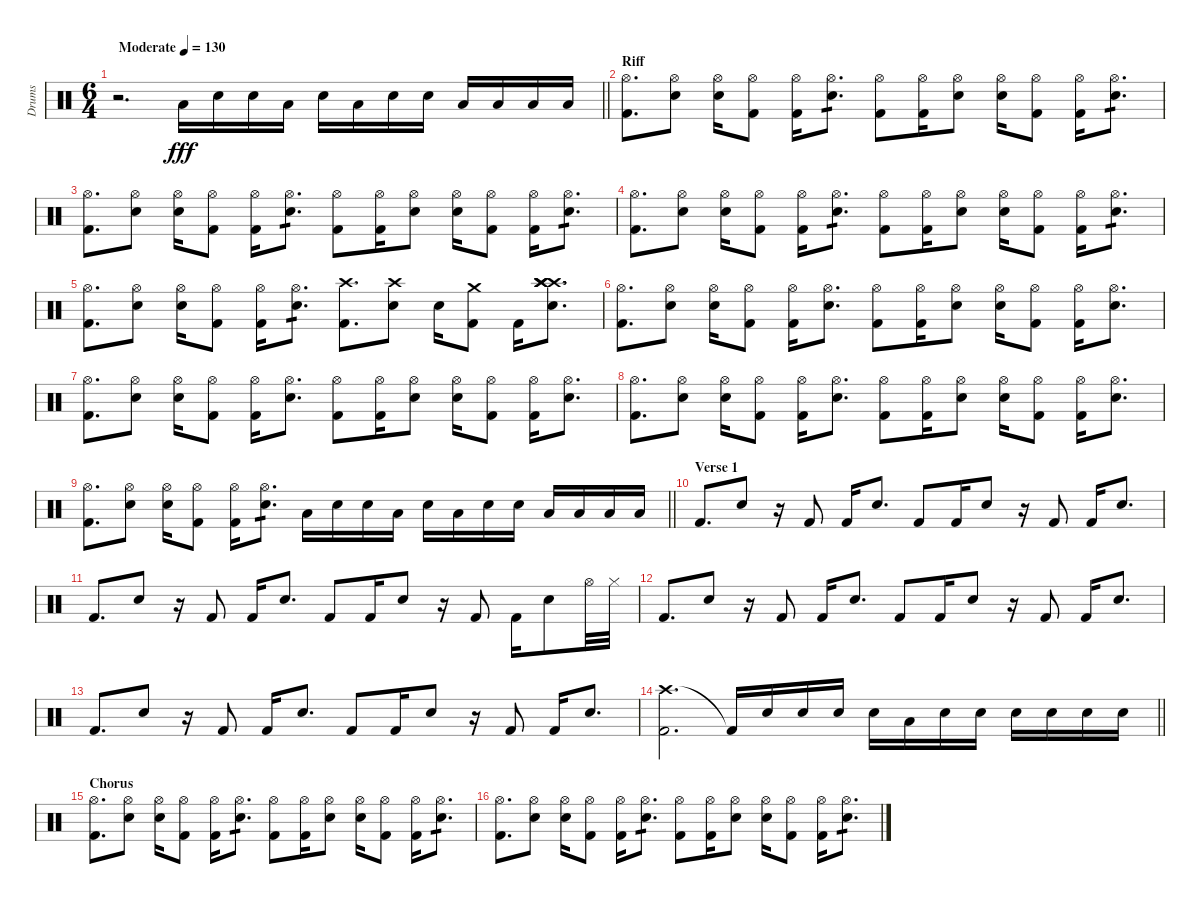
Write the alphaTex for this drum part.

\track ("Drums" "Drums") {instrument percussion}
\staff {score}
\articulation defaults
\ts (6 4)
\tempo (130 "Moderate")
\clef neutral
\barLineRight lightlight
\ks c
r.2{d dy fff} "Low Tom (hit)".16 "Electric Snare (hit)".16 "Electric Snare (hit)".16 "Low Tom (hit)".16 "Electric Snare (hit)".16 "Low Tom (hit)".16 "Electric Snare (hit)".16 "Electric Snare (hit)".16 "Low Tom (hit)".16 "Low Tom (hit)".16 "Low Tom (hit)".16 "Low Floor Tom (hit)".16 |
\section ("" "Riff")
("Hi-Hat (open)" "Kick (hit) 2").8{d} ("Hi-Hat (open)" "Snare (hit) 2").8 ("Hi-Hat (open)" "Snare (hit) 2").16 ("Hi-Hat (open)" "Kick (hit) 2").8 ("Hi-Hat (open)" "Kick (hit) 2").16 ("Hi-Hat (open)" "Snare (hit) 2").8{d tp 1} ("Hi-Hat (open)" "Kick (hit) 2").8 ("Hi-Hat (open)" "Kick (hit) 2").16 ("Hi-Hat (open)" "Snare (hit) 2").8 ("Hi-Hat (open)" "Snare (hit) 2").16 ("Hi-Hat (open)" "Kick (hit) 2").8 ("Hi-Hat (open)" "Kick (hit) 2").16 ("Hi-Hat (open)" "Snare (hit) 2").8{d tp 1} |
("Hi-Hat (open)" "Kick (hit) 2").8{d} ("Hi-Hat (open)" "Snare (hit) 2").8 ("Hi-Hat (open)" "Snare (hit) 2").16 ("Hi-Hat (open)" "Kick (hit) 2").8 ("Hi-Hat (open)" "Kick (hit) 2").16 ("Hi-Hat (open)" "Snare (hit) 2").8{d tp 1} ("Hi-Hat (open)" "Kick (hit) 2").8 ("Hi-Hat (open)" "Kick (hit) 2").16 ("Hi-Hat (open)" "Snare (hit) 2").8 ("Hi-Hat (open)" "Snare (hit) 2").16 ("Hi-Hat (open)" "Kick (hit) 2").8 ("Hi-Hat (open)" "Kick (hit) 2").16 ("Hi-Hat (open)" "Snare (hit) 2").8{d tp 1} |
("Hi-Hat (open)" "Kick (hit) 2").8{d} ("Hi-Hat (open)" "Snare (hit) 2").8 ("Hi-Hat (open)" "Snare (hit) 2").16 ("Hi-Hat (open)" "Kick (hit) 2").8 ("Hi-Hat (open)" "Kick (hit) 2").16 ("Hi-Hat (open)" "Snare (hit) 2").8{d tp 1} ("Hi-Hat (open)" "Kick (hit) 2").8 ("Hi-Hat (open)" "Kick (hit) 2").16 ("Hi-Hat (open)" "Snare (hit) 2").8 ("Hi-Hat (open)" "Snare (hit) 2").16 ("Hi-Hat (open)" "Kick (hit) 2").8 ("Hi-Hat (open)" "Kick (hit) 2").16 ("Hi-Hat (open)" "Snare (hit) 2").8{d tp 1} |
("Hi-Hat (open)" "Kick (hit) 2").8{d} ("Hi-Hat (open)" "Snare (hit) 2").8 ("Hi-Hat (open)" "Snare (hit) 2").16 ("Hi-Hat (open)" "Kick (hit) 2").8 ("Hi-Hat (open)" "Kick (hit) 2").16 ("Hi-Hat (open)" "Snare (hit) 2").8{d tp 1} ("Crash high (hit)" "Kick (hit) 2").8{d} ("Crash high (hit)" "Snare (hit) 2").8 "Snare (hit) 2".16 ("Crash medium (hit)" "Kick (hit) 2").8 "Kick (hit) 2".16 ("Crash high (hit)" "Crash high (hit)" "Crash high (hit)" "Crash high (hit)" "Snare (hit) 2").8{d} |
("Hi-Hat (open)" "Kick (hit) 2").8{d} ("Hi-Hat (open)" "Snare (hit) 2").8 ("Hi-Hat (open)" "Snare (hit) 2").16 ("Hi-Hat (open)" "Kick (hit) 2").8 ("Hi-Hat (open)" "Kick (hit) 2").16 ("Hi-Hat (open)" "Snare (hit) 2").8{d} ("Hi-Hat (open)" "Kick (hit) 2").8 ("Hi-Hat (open)" "Kick (hit) 2").16 ("Hi-Hat (open)" "Snare (hit) 2").8 ("Hi-Hat (open)" "Snare (hit) 2").16 ("Hi-Hat (open)" "Kick (hit) 2").8 ("Hi-Hat (open)" "Kick (hit) 2").16 ("Hi-Hat (open)" "Snare (hit) 2").8{d} |
("Hi-Hat (open)" "Kick (hit) 2").8{d} ("Hi-Hat (open)" "Snare (hit) 2").8 ("Hi-Hat (open)" "Snare (hit) 2").16 ("Hi-Hat (open)" "Kick (hit) 2").8 ("Hi-Hat (open)" "Kick (hit) 2").16 ("Hi-Hat (open)" "Snare (hit) 2").8{d} ("Hi-Hat (open)" "Kick (hit) 2").8 ("Hi-Hat (open)" "Kick (hit) 2").16 ("Hi-Hat (open)" "Snare (hit) 2").8 ("Hi-Hat (open)" "Snare (hit) 2").16 ("Hi-Hat (open)" "Kick (hit) 2").8 ("Hi-Hat (open)" "Kick (hit) 2").16 ("Hi-Hat (open)" "Snare (hit) 2").8{d} |
("Hi-Hat (open)" "Kick (hit) 2").8{d} ("Hi-Hat (open)" "Snare (hit) 2").8 ("Hi-Hat (open)" "Snare (hit) 2").16 ("Hi-Hat (open)" "Kick (hit) 2").8 ("Hi-Hat (open)" "Kick (hit) 2").16 ("Hi-Hat (open)" "Snare (hit) 2").8{d} ("Hi-Hat (open)" "Kick (hit) 2").8 ("Hi-Hat (open)" "Kick (hit) 2").16 ("Hi-Hat (open)" "Snare (hit) 2").8 ("Hi-Hat (open)" "Snare (hit) 2").16 ("Hi-Hat (open)" "Kick (hit) 2").8 ("Hi-Hat (open)" "Kick (hit) 2").16 ("Hi-Hat (open)" "Snare (hit) 2").8{d} |
\barLineRight lightlight
("Hi-Hat (open)" "Kick (hit) 2").8{d} ("Hi-Hat (open)" "Snare (hit) 2").8 ("Hi-Hat (open)" "Snare (hit) 2").16 ("Hi-Hat (open)" "Kick (hit) 2").8 ("Hi-Hat (open)" "Kick (hit) 2").16 ("Hi-Hat (open)" "Snare (hit) 2").8{d tp 1} "Low Tom (hit)".16 "Snare (hit) 2".16 "Snare (hit) 2".16 "Low Tom (hit)".16 "Snare (hit) 2".16 "Low Tom (hit)".16 "Snare (hit) 2".16 "Snare (hit) 2".16 "Low Tom (hit)".16 "Low Tom (hit)".16 "Low Tom (hit)".16 "Low Floor Tom (hit)".16 |
\section ("" "Verse 1")
"Kick (hit) 2".8{d} "Snare (hit) 2".8 r.16 "Kick (hit) 2".8 "Kick (hit) 2".16 "Snare (hit) 2".8{d} "Kick (hit) 2".8 "Kick (hit) 2".16 "Snare (hit) 2".8 r.16 "Kick (hit) 2".8 "Kick (hit) 2".16 "Snare (hit) 2".8{d} |
"Kick (hit) 2".8{d} "Snare (hit) 2".8 r.16 "Kick (hit) 2".8 "Kick (hit) 2".16 "Snare (hit) 2".8{d} "Kick (hit) 2".8 "Kick (hit) 2".16 "Snare (hit) 2".8 r.16 "Kick (hit) 2".8 "Kick (hit) 2".16 "Snare (hit) 2".8 "Hi-Hat (open)".32 "Hi-Hat (closed)".32 |
"Kick (hit) 2".8{d} "Snare (hit) 2".8 r.16 "Kick (hit) 2".8 "Kick (hit) 2".16 "Snare (hit) 2".8{d} "Kick (hit) 2".8 "Kick (hit) 2".16 "Snare (hit) 2".8 r.16 "Kick (hit) 2".8 "Kick (hit) 2".16 "Snare (hit) 2".8{d} |
"Kick (hit) 2".8{d} "Snare (hit) 2".8 r.16 "Kick (hit) 2".8 "Kick (hit) 2".16 "Snare (hit) 2".8{d} "Kick (hit) 2".8 "Kick (hit) 2".16 "Snare (hit) 2".8 r.16 "Kick (hit) 2".8 "Kick (hit) 2".16 "Snare (hit) 2".8{d} |
\barLineRight lightlight
("Crash high (hit)" "Kick (hit) 2").2{d} "Kick (hit) 2"{t}.16 "Snare (hit) 2".16 "Snare (hit) 2".16 "Snare (hit) 2".16 "Snare (hit) 2".16 "Low Tom (hit)".16 "Snare (hit) 2".16 "Snare (hit) 2".16 "Snare (hit) 2".16 "Snare (hit) 2".16 "Snare (hit) 2".16 "Snare (hit) 2".16 |
\section ("" "Chorus")
("Hi-Hat (open)" "Kick (hit) 2").8{d} ("Hi-Hat (open)" "Snare (hit) 2").8 ("Hi-Hat (open)" "Snare (hit) 2").16 ("Hi-Hat (open)" "Kick (hit) 2").8 ("Hi-Hat (open)" "Kick (hit) 2").16 ("Hi-Hat (open)" "Snare (hit) 2").8{d tp 1} ("Hi-Hat (open)" "Kick (hit) 2").8 ("Hi-Hat (open)" "Kick (hit) 2").16 ("Hi-Hat (open)" "Snare (hit) 2").8 ("Hi-Hat (open)" "Snare (hit) 2").16 ("Hi-Hat (open)" "Kick (hit) 2").8 ("Hi-Hat (open)" "Kick (hit) 2").16 ("Hi-Hat (open)" "Snare (hit) 2").8{d tp 1} |
("Hi-Hat (open)" "Kick (hit) 2").8{d} ("Hi-Hat (open)" "Snare (hit) 2").8 ("Hi-Hat (open)" "Snare (hit) 2").16 ("Hi-Hat (open)" "Kick (hit) 2").8 ("Hi-Hat (open)" "Kick (hit) 2").16 ("Hi-Hat (open)" "Snare (hit) 2").8{d tp 1} ("Hi-Hat (open)" "Kick (hit) 2").8 ("Hi-Hat (open)" "Kick (hit) 2").16 ("Hi-Hat (open)" "Snare (hit) 2").8 ("Hi-Hat (open)" "Snare (hit) 2").16 ("Hi-Hat (open)" "Kick (hit) 2").8 ("Hi-Hat (open)" "Kick (hit) 2").16 ("Hi-Hat (open)" "Snare (hit) 2").8{d tp 1}
